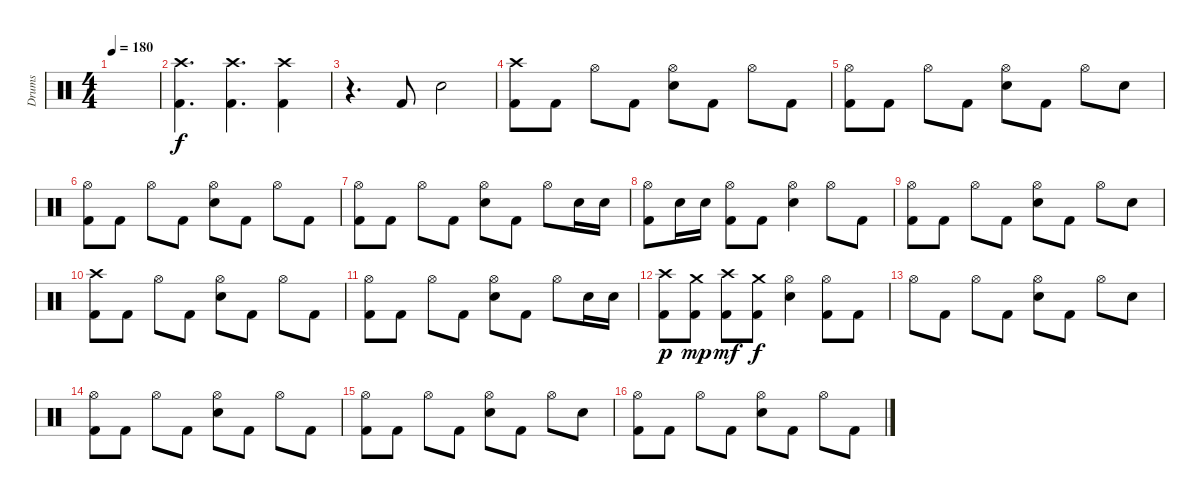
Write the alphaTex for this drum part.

\track ("Drums" "Drums") {instrument percussion}
\staff {score}
\articulation defaults
\ts (4 4)
\tempo 180
\clef neutral
\ks c
|
("Crash high (hit)" "Kick (hit) 2").4{d} ("Crash high (hit)" "Kick (hit) 2").4{d} ("Crash high (hit)" "Kick (hit) 2").4 |
r.4{d} "Kick (hit) 2".8 "Electric Snare (hit)".2 |
("Crash high (hit)" "Kick (hit) 2").8 "Kick (hit) 2".8 "Hi-Hat (open)".8 "Kick (hit) 2".8 ("Hi-Hat (open)" "Electric Snare (hit)").8 "Kick (hit) 2".8 "Hi-Hat (open)".8 "Kick (hit) 2".8 |
("Hi-Hat (open)" "Kick (hit) 2").8 "Kick (hit) 2".8 "Hi-Hat (open)".8 "Kick (hit) 2".8 ("Hi-Hat (open)" "Electric Snare (hit)").8 "Kick (hit) 2".8 "Hi-Hat (open)".8 "Electric Snare (hit)".8 |
("Hi-Hat (open)" "Kick (hit) 2").8 "Kick (hit) 2".8 "Hi-Hat (open)".8 "Kick (hit) 2".8 ("Hi-Hat (open)" "Electric Snare (hit)").8 "Kick (hit) 2".8 "Hi-Hat (open)".8 "Kick (hit) 2".8 |
("Hi-Hat (open)" "Kick (hit) 2").8 "Kick (hit) 2".8 "Hi-Hat (open)".8 "Kick (hit) 2".8 ("Hi-Hat (open)" "Electric Snare (hit)").8 "Kick (hit) 2".8 "Hi-Hat (open)".8 "Electric Snare (hit)".16 "Electric Snare (hit)".16 |
("Hi-Hat (open)" "Kick (hit) 2").8 "Electric Snare (hit)".16 "Electric Snare (hit)".16 ("Hi-Hat (open)" "Kick (hit) 2").8 "Kick (hit) 2".8 ("Hi-Hat (open)" "Electric Snare (hit)").4 "Hi-Hat (open)".8 "Kick (hit) 2".8 |
("Hi-Hat (open)" "Kick (hit) 2").8 "Kick (hit) 2".8 "Hi-Hat (open)".8 "Kick (hit) 2".8 ("Hi-Hat (open)" "Electric Snare (hit)").8 "Kick (hit) 2".8 "Hi-Hat (open)".8 "Electric Snare (hit)".8 |
("Crash high (hit)" "Kick (hit) 2").8 "Kick (hit) 2".8 "Hi-Hat (open)".8 "Kick (hit) 2".8 ("Hi-Hat (open)" "Electric Snare (hit)").8 "Kick (hit) 2".8 "Hi-Hat (open)".8 "Kick (hit) 2".8 |
("Hi-Hat (open)" "Kick (hit) 2").8 "Kick (hit) 2".8 "Hi-Hat (open)".8 "Kick (hit) 2".8 ("Hi-Hat (open)" "Electric Snare (hit)").8 "Kick (hit) 2".8 "Hi-Hat (open)".8 "Electric Snare (hit)".16 "Electric Snare (hit)".16 |
("Crash high (hit)" "Kick (hit) 2").8{dy p} ("Crash medium (hit)" "Kick (hit) 2").8{dy mp} ("Crash high (hit)" "Kick (hit) 2").8{dy mf} ("Crash medium (hit)" "Kick (hit) 2").8{dy f} ("Hi-Hat (open)" "Electric Snare (hit)").4 ("Hi-Hat (open)" "Kick (hit) 2").8 "Kick (hit) 2".8 |
"Hi-Hat (open)".8 "Kick (hit) 2".8 "Hi-Hat (open)".8 "Kick (hit) 2".8 ("Hi-Hat (open)" "Electric Snare (hit)").8 "Kick (hit) 2".8 "Hi-Hat (open)".8 "Electric Snare (hit)".8 |
("Hi-Hat (open)" "Kick (hit) 2").8 "Kick (hit) 2".8 "Hi-Hat (open)".8 "Kick (hit) 2".8 ("Hi-Hat (open)" "Electric Snare (hit)").8 "Kick (hit) 2".8 "Hi-Hat (open)".8 "Kick (hit) 2".8 |
("Hi-Hat (open)" "Kick (hit) 2").8 "Kick (hit) 2".8 "Hi-Hat (open)".8 "Kick (hit) 2".8 ("Hi-Hat (open)" "Electric Snare (hit)").8 "Kick (hit) 2".8 "Hi-Hat (open)".8 "Electric Snare (hit)".8 |
("Hi-Hat (open)" "Kick (hit) 2").8 "Kick (hit) 2".8 "Hi-Hat (open)".8 "Kick (hit) 2".8 ("Hi-Hat (open)" "Electric Snare (hit)").8 "Kick (hit) 2".8 "Hi-Hat (open)".8 "Kick (hit) 2".8
